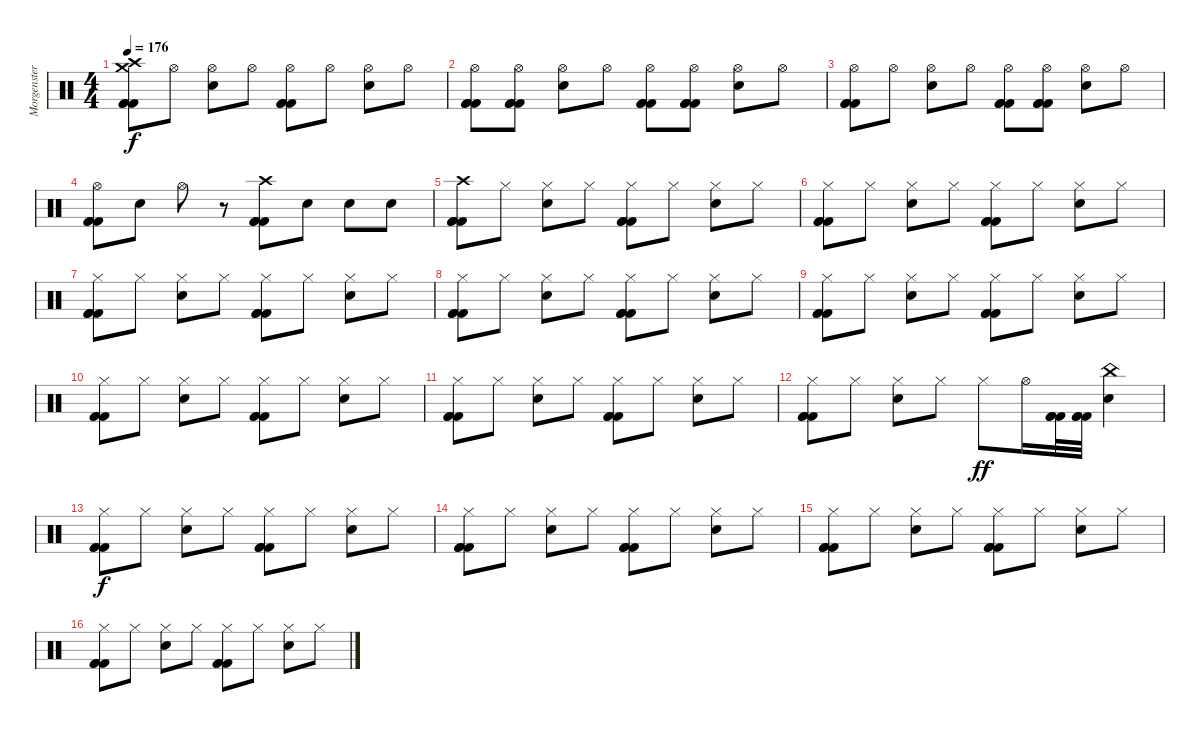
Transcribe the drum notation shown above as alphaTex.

\track ("Morgenstern (Schlagzeug)" "Morgenster") {instrument percussion}
\staff {score}
\articulation defaults
\ts (4 4)
\tempo 176
\clef neutral
\ks c
("Crash high (hit)" "Crash medium (hit)" "Kick (hit) 2" "Kick (hit) 2" "Kick (hit) 2").8{dy f} "Hi-Hat (open)".8 ("Hi-Hat (open)" "Snare (hit) 2").8 "Hi-Hat (open)".8 ("Hi-Hat (open)" "Kick (hit) 2" "Kick (hit) 2" "Kick (hit) 2").8 "Hi-Hat (open)".8 ("Hi-Hat (open)" "Snare (hit) 2").8 "Hi-Hat (open)".8 |
("Hi-Hat (open)" "Kick (hit) 2" "Kick (hit) 2" "Kick (hit) 2").8 ("Hi-Hat (open)" "Kick (hit) 2" "Kick (hit) 2" "Kick (hit) 2").8 ("Hi-Hat (open)" "Snare (hit) 2").8 "Hi-Hat (open)".8 ("Hi-Hat (open)" "Kick (hit) 2" "Kick (hit) 2" "Kick (hit) 2").8 ("Hi-Hat (open)" "Kick (hit) 2" "Kick (hit) 2" "Kick (hit) 2").8 ("Hi-Hat (open)" "Snare (hit) 2").8 "Hi-Hat (open)".8 |
("Hi-Hat (open)" "Kick (hit) 2" "Kick (hit) 2" "Kick (hit) 2").8 "Hi-Hat (open)".8 ("Hi-Hat (open)" "Snare (hit) 2").8 "Hi-Hat (open)".8 ("Hi-Hat (open)" "Kick (hit) 2" "Kick (hit) 2" "Kick (hit) 2").8 ("Hi-Hat (open)" "Kick (hit) 2" "Kick (hit) 2" "Kick (hit) 2").8 ("Hi-Hat (open)" "Snare (hit) 2").8 "Hi-Hat (open)".8 |
("Hi-Hat (open)" "Kick (hit) 2" "Kick (hit) 2" "Kick (hit) 2").8 "Snare (hit) 2".8 "Hi-Hat (open)".8 r.8 ("Crash high (hit)" "Kick (hit) 2" "Kick (hit) 2" "Kick (hit) 2").8 "Snare (hit) 2".8 "Snare (hit) 2".8 "Snare (hit) 2".8 |
("Crash high (hit)" "Kick (hit) 2" "Kick (hit) 2" "Kick (hit) 2").8 "Hi-Hat (closed)".8 ("Hi-Hat (closed)" "Snare (hit) 2").8 "Hi-Hat (closed)".8 ("Hi-Hat (closed)" "Kick (hit) 2" "Kick (hit) 2" "Kick (hit) 2").8 "Hi-Hat (closed)".8 ("Hi-Hat (closed)" "Snare (hit) 2").8 "Hi-Hat (closed)".8 |
("Hi-Hat (closed)" "Kick (hit) 2" "Kick (hit) 2" "Kick (hit) 2").8 "Hi-Hat (closed)".8 ("Hi-Hat (closed)" "Snare (hit) 2").8 "Hi-Hat (closed)".8 ("Hi-Hat (closed)" "Kick (hit) 2" "Kick (hit) 2" "Kick (hit) 2").8 "Hi-Hat (closed)".8 ("Hi-Hat (closed)" "Snare (hit) 2").8 "Hi-Hat (closed)".8 |
("Hi-Hat (closed)" "Kick (hit) 2" "Kick (hit) 2" "Kick (hit) 2").8 "Hi-Hat (closed)".8 ("Hi-Hat (closed)" "Snare (hit) 2").8 "Hi-Hat (closed)".8 ("Hi-Hat (closed)" "Kick (hit) 2" "Kick (hit) 2" "Kick (hit) 2").8 "Hi-Hat (closed)".8 ("Hi-Hat (closed)" "Snare (hit) 2").8 "Hi-Hat (closed)".8 |
("Hi-Hat (closed)" "Kick (hit) 2" "Kick (hit) 2" "Kick (hit) 2").8 "Hi-Hat (closed)".8 ("Hi-Hat (closed)" "Snare (hit) 2").8 "Hi-Hat (closed)".8 ("Hi-Hat (closed)" "Kick (hit) 2" "Kick (hit) 2" "Kick (hit) 2").8 "Hi-Hat (closed)".8 ("Hi-Hat (closed)" "Snare (hit) 2").8 "Hi-Hat (closed)".8 |
("Hi-Hat (closed)" "Kick (hit) 2" "Kick (hit) 2" "Kick (hit) 2").8 "Hi-Hat (closed)".8 ("Hi-Hat (closed)" "Snare (hit) 2").8 "Hi-Hat (closed)".8 ("Hi-Hat (closed)" "Kick (hit) 2" "Kick (hit) 2" "Kick (hit) 2").8 "Hi-Hat (closed)".8 ("Hi-Hat (closed)" "Snare (hit) 2").8 "Hi-Hat (closed)".8 |
("Hi-Hat (closed)" "Kick (hit) 2" "Kick (hit) 2" "Kick (hit) 2").8 "Hi-Hat (closed)".8 ("Hi-Hat (closed)" "Snare (hit) 2").8 "Hi-Hat (closed)".8 ("Hi-Hat (closed)" "Kick (hit) 2" "Kick (hit) 2" "Kick (hit) 2").8 "Hi-Hat (closed)".8 ("Hi-Hat (closed)" "Snare (hit) 2").8 "Hi-Hat (closed)".8 |
("Hi-Hat (closed)" "Kick (hit) 2" "Kick (hit) 2" "Kick (hit) 2").8 "Hi-Hat (closed)".8 ("Hi-Hat (closed)" "Snare (hit) 2").8 "Hi-Hat (closed)".8 ("Hi-Hat (closed)" "Kick (hit) 2" "Kick (hit) 2" "Kick (hit) 2").8 "Hi-Hat (closed)".8 ("Hi-Hat (closed)" "Snare (hit) 2").8 "Hi-Hat (closed)".8 |
("Hi-Hat (closed)" "Kick (hit) 2" "Kick (hit) 2" "Kick (hit) 2").8 "Hi-Hat (closed)".8 ("Hi-Hat (closed)" "Snare (hit) 2").8 "Hi-Hat (closed)".8 "Hi-Hat (closed)".8{dy ff} "Hi-Hat (open)".16 ("Kick (hit) 2" "Kick (hit) 2" "Kick (hit) 2").32 ("Kick (hit) 2" "Kick (hit) 2" "Kick (hit) 2").32 ("China (hit)" "Snare (hit) 2").4 |
("Hi-Hat (closed)" "Kick (hit) 2" "Kick (hit) 2" "Kick (hit) 2").8{dy f} "Hi-Hat (closed)".8 ("Hi-Hat (closed)" "Snare (hit) 2").8 "Hi-Hat (closed)".8 ("Hi-Hat (closed)" "Kick (hit) 2" "Kick (hit) 2" "Kick (hit) 2").8 "Hi-Hat (closed)".8 ("Hi-Hat (closed)" "Snare (hit) 2").8 "Hi-Hat (closed)".8 |
("Hi-Hat (closed)" "Kick (hit) 2" "Kick (hit) 2" "Kick (hit) 2").8 "Hi-Hat (closed)".8 ("Hi-Hat (closed)" "Snare (hit) 2").8 "Hi-Hat (closed)".8 ("Hi-Hat (closed)" "Kick (hit) 2" "Kick (hit) 2" "Kick (hit) 2").8 "Hi-Hat (closed)".8 ("Hi-Hat (closed)" "Snare (hit) 2").8 "Hi-Hat (closed)".8 |
("Hi-Hat (closed)" "Kick (hit) 2" "Kick (hit) 2" "Kick (hit) 2").8 "Hi-Hat (closed)".8 ("Hi-Hat (closed)" "Snare (hit) 2").8 "Hi-Hat (closed)".8 ("Hi-Hat (closed)" "Kick (hit) 2" "Kick (hit) 2" "Kick (hit) 2").8 "Hi-Hat (closed)".8 ("Hi-Hat (closed)" "Snare (hit) 2").8 "Hi-Hat (closed)".8 |
("Hi-Hat (closed)" "Kick (hit) 2" "Kick (hit) 2" "Kick (hit) 2").8 "Hi-Hat (closed)".8 ("Hi-Hat (closed)" "Snare (hit) 2").8 "Hi-Hat (closed)".8 ("Hi-Hat (closed)" "Kick (hit) 2" "Kick (hit) 2" "Kick (hit) 2").8 "Hi-Hat (closed)".8 ("Hi-Hat (closed)" "Snare (hit) 2").8 "Hi-Hat (closed)".8
